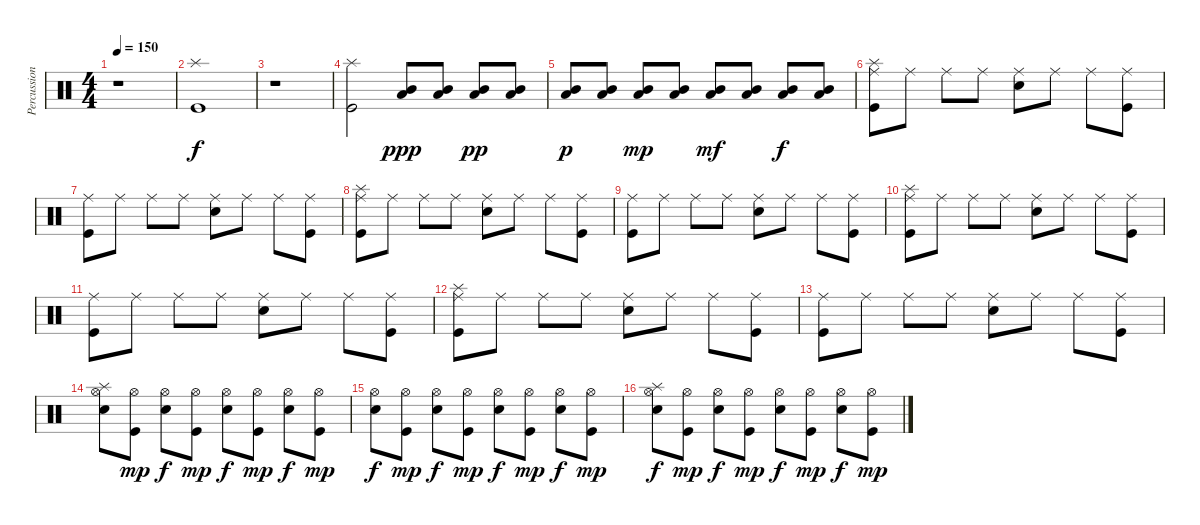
\track ("Percussions" "Percussion") {instrument percussion}
\staff {score}
\articulation defaults
\ts (4 4)
\tempo 150
\clef neutral
\ks c
r.1{dy f} |
("Splash (hit)" "Kick (hit)").1 |
r.1 |
("Splash (hit)" "Kick (hit)").2 ("Mid Tom (hit)" "Low Tom (hit)").8{dy ppp} ("Mid Tom (hit)" "Low Tom (hit)").8 ("Mid Tom (hit)" "Low Tom (hit)").8{dy pp} ("Mid Tom (hit)" "Low Tom (hit)").8 |
("Mid Tom (hit)" "Low Tom (hit)").8{dy p} ("Mid Tom (hit)" "Low Tom (hit)").8 ("Mid Tom (hit)" "Low Tom (hit)").8{dy mp} ("Mid Tom (hit)" "Low Tom (hit)").8 ("Mid Tom (hit)" "Low Tom (hit)").8{dy mf} ("Mid Tom (hit)" "Low Tom (hit)").8 ("Mid Tom (hit)" "Low Tom (hit)").8{dy f} ("Mid Tom (hit)" "Low Tom (hit)").8 |
("Splash (hit)" "Ride (middle)" "Kick (hit)").8 "Ride (middle)".8 "Ride (middle)".8 "Ride (middle)".8 ("Ride (middle)" "Electric Snare (hit)").8 "Ride (middle)".8 "Ride (middle)".8 ("Ride (middle)" "Kick (hit)").8 |
("Ride (middle)" "Kick (hit)").8 "Ride (middle)".8 "Ride (middle)".8 "Ride (middle)".8 ("Ride (middle)" "Electric Snare (hit)").8 "Ride (middle)".8 "Ride (middle)".8 ("Ride (middle)" "Kick (hit)").8 |
("Splash (hit)" "Ride (middle)" "Kick (hit)").8 "Ride (middle)".8 "Ride (middle)".8 "Ride (middle)".8 ("Ride (middle)" "Electric Snare (hit)").8 "Ride (middle)".8 "Ride (middle)".8 ("Ride (middle)" "Kick (hit)").8 |
("Ride (middle)" "Kick (hit)").8 "Ride (middle)".8 "Ride (middle)".8 "Ride (middle)".8 ("Ride (middle)" "Electric Snare (hit)").8 "Ride (middle)".8 "Ride (middle)".8 ("Ride (middle)" "Kick (hit)").8 |
("Splash (hit)" "Ride (middle)" "Kick (hit)").8 "Ride (middle)".8 "Ride (middle)".8 "Ride (middle)".8 ("Ride (middle)" "Electric Snare (hit)").8 "Ride (middle)".8 "Ride (middle)".8 ("Ride (middle)" "Kick (hit)").8 |
("Ride (middle)" "Kick (hit)").8 "Ride (middle)".8 "Ride (middle)".8 "Ride (middle)".8 ("Ride (middle)" "Electric Snare (hit)").8 "Ride (middle)".8 "Ride (middle)".8 ("Ride (middle)" "Kick (hit)").8 |
("Splash (hit)" "Ride (middle)" "Kick (hit)").8 "Ride (middle)".8 "Ride (middle)".8 "Ride (middle)".8 ("Ride (middle)" "Electric Snare (hit)").8 "Ride (middle)".8 "Ride (middle)".8 ("Ride (middle)" "Kick (hit)").8 |
("Ride (middle)" "Kick (hit)").8 "Ride (middle)".8 "Ride (middle)".8 "Ride (middle)".8 ("Ride (middle)" "Electric Snare (hit)").8 "Ride (middle)".8 "Ride (middle)".8 ("Ride (middle)" "Kick (hit)").8 |
("Splash (hit)" "Hi-Hat (open)" "Electric Snare (hit)").8 ("Hi-Hat (open)" "Kick (hit)").8{dy mp} ("Hi-Hat (open)" "Electric Snare (hit)").8{dy f} ("Hi-Hat (open)" "Kick (hit)").8{dy mp} ("Hi-Hat (open)" "Electric Snare (hit)").8{dy f} ("Hi-Hat (open)" "Kick (hit)").8{dy mp} ("Hi-Hat (open)" "Electric Snare (hit)").8{dy f} ("Hi-Hat (open)" "Kick (hit)").8{dy mp} |
("Hi-Hat (open)" "Electric Snare (hit)").8{dy f} ("Hi-Hat (open)" "Kick (hit)").8{dy mp} ("Hi-Hat (open)" "Electric Snare (hit)").8{dy f} ("Hi-Hat (open)" "Kick (hit)").8{dy mp} ("Hi-Hat (open)" "Electric Snare (hit)").8{dy f} ("Hi-Hat (open)" "Kick (hit)").8{dy mp} ("Hi-Hat (open)" "Electric Snare (hit)").8{dy f} ("Hi-Hat (open)" "Kick (hit)").8{dy mp} |
("Splash (hit)" "Hi-Hat (open)" "Electric Snare (hit)").8{dy f} ("Hi-Hat (open)" "Kick (hit)").8{dy mp} ("Hi-Hat (open)" "Electric Snare (hit)").8{dy f} ("Hi-Hat (open)" "Kick (hit)").8{dy mp} ("Hi-Hat (open)" "Electric Snare (hit)").8{dy f} ("Hi-Hat (open)" "Kick (hit)").8{dy mp} ("Hi-Hat (open)" "Electric Snare (hit)").8{dy f} ("Hi-Hat (open)" "Kick (hit)").8{dy mp}
